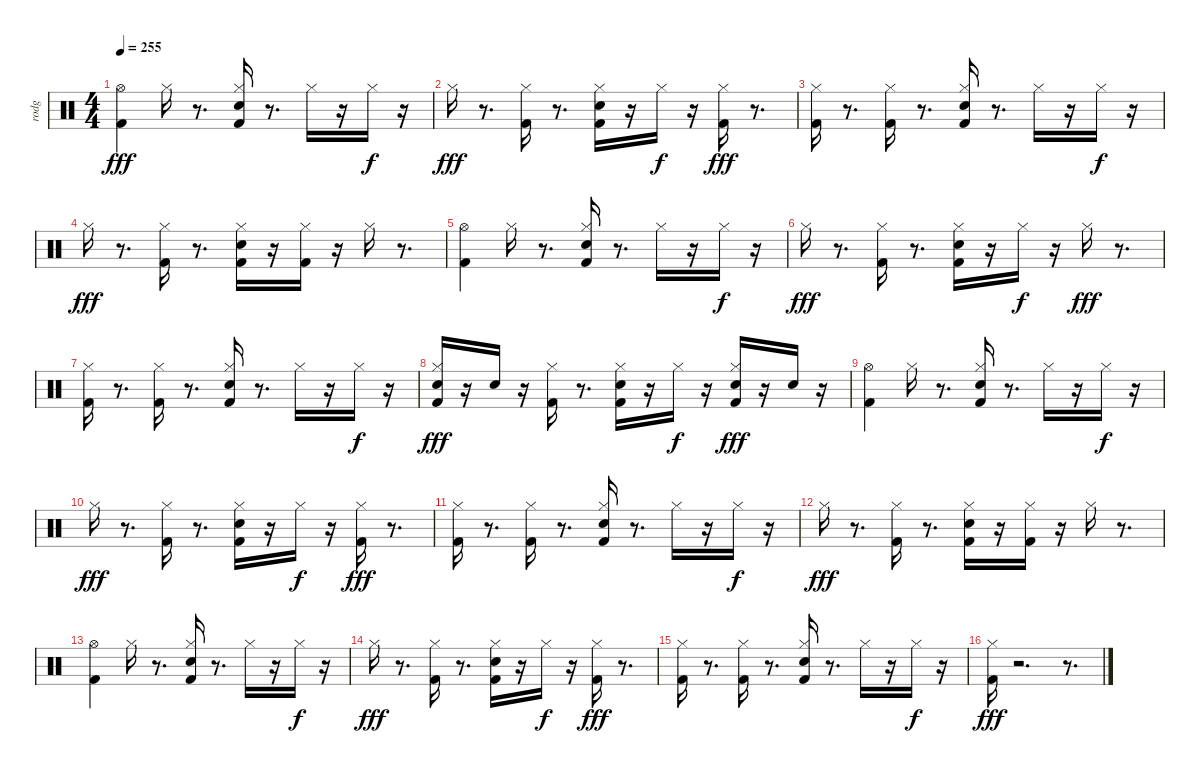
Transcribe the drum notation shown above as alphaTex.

\track ("rodg" "rodg") {instrument percussion}
\staff {score}
\articulation defaults
\ts (4 4)
\tempo 255
\clef neutral
\ks c
("Hi-Hat (open)" "Kick (hit) 2").4{dy fff} "Hi-Hat (closed)".16 r.8{d} ("Kick (hit) 2" "Electric Snare (hit)" "Hi-Hat (closed)").16 r.8{d} "Hi-Hat (closed)".16 r.16 "Hi-Hat (closed)".16{dy f} r.16 |
"Hi-Hat (closed)".16{dy fff} r.8{d} ("Kick (hit) 2" "Hi-Hat (closed)").16 r.8{d} ("Kick (hit) 2" "Electric Snare (hit)" "Hi-Hat (closed)").16 r.16 "Hi-Hat (closed)".16{dy f} r.16 ("Kick (hit) 2" "Hi-Hat (closed)").16{dy fff} r.8{d} |
("Kick (hit) 2" "Hi-Hat (closed)").16 r.8{d} ("Hi-Hat (closed)" "Kick (hit) 2").16 r.8{d} ("Kick (hit) 2" "Electric Snare (hit)" "Hi-Hat (closed)").16 r.8{d} "Hi-Hat (closed)".16 r.16 "Hi-Hat (closed)".16{dy f} r.16 |
"Hi-Hat (closed)".16{dy fff} r.8{d} ("Kick (hit) 2" "Hi-Hat (closed)").16 r.8{d} ("Kick (hit) 2" "Electric Snare (hit)" "Hi-Hat (closed)").16 r.16 ("Hi-Hat (closed)" "Kick (hit) 2").16 r.16 "Hi-Hat (closed)".16 r.8{d} |
("Kick (hit) 2" "Hi-Hat (open)").4 "Hi-Hat (closed)".16 r.8{d} ("Kick (hit) 2" "Electric Snare (hit)" "Hi-Hat (closed)").16 r.8{d} "Hi-Hat (closed)".16 r.16 "Hi-Hat (closed)".16{dy f} r.16 |
"Hi-Hat (closed)".16{dy fff} r.8{d} ("Kick (hit) 2" "Hi-Hat (closed)").16 r.8{d} ("Kick (hit) 2" "Electric Snare (hit)" "Hi-Hat (closed)").16 r.16 "Hi-Hat (closed)".16{dy f} r.16 "Hi-Hat (closed)".16{dy fff} r.8{d} |
("Kick (hit) 2" "Hi-Hat (closed)").16 r.8{d} ("Hi-Hat (closed)" "Kick (hit) 2").16 r.8{d} ("Kick (hit) 2" "Electric Snare (hit)" "Hi-Hat (closed)").16 r.8{d} "Hi-Hat (closed)".16 r.16 "Hi-Hat (closed)".16{dy f} r.16 |
("Hi-Hat (closed)" "Electric Snare (hit)" "Kick (hit) 2").16{dy fff} r.16 "Electric Snare (hit)".16 r.16 ("Hi-Hat (closed)" "Kick (hit) 2").16 r.8{d} ("Hi-Hat (closed)" "Electric Snare (hit)" "Kick (hit) 2").16 r.16 "Hi-Hat (closed)".16{dy f} r.16 ("Hi-Hat (closed)" "Electric Snare (hit)" "Kick (hit) 2").16{dy fff} r.16 "Electric Snare (hit)".16 r.16 |
("Kick (hit) 2" "Hi-Hat (open)").4 "Hi-Hat (closed)".16 r.8{d} ("Kick (hit) 2" "Electric Snare (hit)" "Hi-Hat (closed)").16 r.8{d} "Hi-Hat (closed)".16 r.16 "Hi-Hat (closed)".16{dy f} r.16 |
"Hi-Hat (closed)".16{dy fff} r.8{d} ("Kick (hit) 2" "Hi-Hat (closed)").16 r.8{d} ("Kick (hit) 2" "Electric Snare (hit)" "Hi-Hat (closed)").16 r.16 "Hi-Hat (closed)".16{dy f} r.16 ("Kick (hit) 2" "Hi-Hat (closed)").16{dy fff} r.8{d} |
("Kick (hit) 2" "Hi-Hat (closed)").16 r.8{d} ("Hi-Hat (closed)" "Kick (hit) 2").16 r.8{d} ("Kick (hit) 2" "Electric Snare (hit)" "Hi-Hat (closed)").16 r.8{d} "Hi-Hat (closed)".16 r.16 "Hi-Hat (closed)".16{dy f} r.16 |
"Hi-Hat (closed)".16{dy fff} r.8{d} ("Kick (hit) 2" "Hi-Hat (closed)").16 r.8{d} ("Kick (hit) 2" "Electric Snare (hit)" "Hi-Hat (closed)").16 r.16 ("Hi-Hat (closed)" "Kick (hit) 2").16 r.16 "Hi-Hat (closed)".16 r.8{d} |
("Hi-Hat (open)" "Kick (hit) 2").4 "Hi-Hat (closed)".16 r.8{d} ("Kick (hit) 2" "Electric Snare (hit)" "Hi-Hat (closed)").16 r.8{d} "Hi-Hat (closed)".16 r.16 "Hi-Hat (closed)".16{dy f} r.16 |
"Hi-Hat (closed)".16{dy fff} r.8{d} ("Kick (hit) 2" "Hi-Hat (closed)").16 r.8{d} ("Kick (hit) 2" "Electric Snare (hit)" "Hi-Hat (closed)").16 r.16 "Hi-Hat (closed)".16{dy f} r.16 ("Kick (hit) 2" "Hi-Hat (closed)").16{dy fff} r.8{d} |
("Kick (hit) 2" "Hi-Hat (closed)").16 r.8{d} ("Hi-Hat (closed)" "Kick (hit) 2").16 r.8{d} ("Kick (hit) 2" "Electric Snare (hit)" "Hi-Hat (closed)").16 r.8{d} "Hi-Hat (closed)".16 r.16 "Hi-Hat (closed)".16{dy f} r.16 |
("Hi-Hat (closed)" "Kick (hit) 2").16{dy fff} r.2{d} r.8{d}
